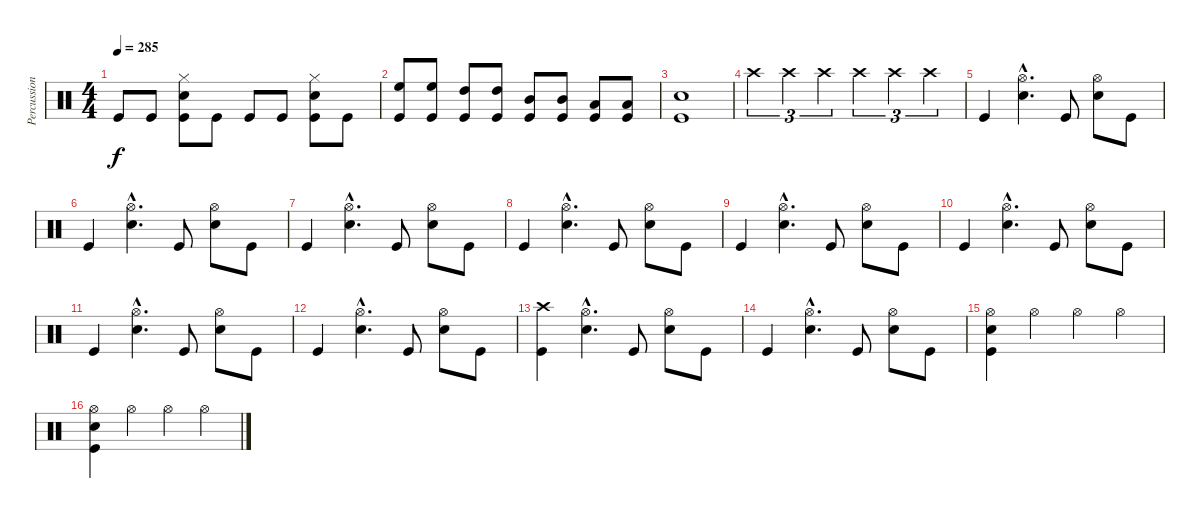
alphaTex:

\track ("Percussion" "Percussion") {instrument percussion}
\staff {score}
\articulation defaults
\ts (4 4)
\tempo 285
\clef neutral
\ks c "Kick (hit)".8{dy f} "Kick (hit)".8
("Snare (hit) 2" "Hi-Hat (closed)" "Kick (hit)").8 "Kick (hit)".8 "Kick (hit)".8 "Kick (hit)".8 ("Snare (hit) 2" "Hi-Hat (closed)" "Kick (hit)").8 "Kick (hit)".8 |
("High Floor Tom (hit)" "Kick (hit)").8 ("High Floor Tom (hit)" "Kick (hit)").8 ("High Tom (hit)" "Kick (hit)").8 ("High Tom (hit)" "Kick (hit)").8 ("Mid Tom (hit)" "Kick (hit)").8 ("Mid Tom (hit)" "Kick (hit)").8 ("Low Tom (hit)" "Kick (hit)").8 ("Low Tom (hit)" "Kick (hit)").8 |
("Snare (hit) 2" "Kick (hit)").1 |
"Crash high (hit)".4{tu (3 2)} "Crash high (hit)".4{tu (3 2)} "Crash high (hit)".4{tu (3 2)} "Crash high (hit)".4{tu (3 2)} "Crash high (hit)".4{tu (3 2)} "Crash high (hit)".4{tu (3 2)} |
"Kick (hit)".4 ("Snare (hit) 2"{hac} "Hi-Hat (open)"{hac}).4{d} "Kick (hit)".8 ("Snare (hit) 2" "Hi-Hat (open)").8 "Kick (hit)".8 |
"Kick (hit)".4 ("Snare (hit) 2"{hac} "Hi-Hat (open)"{hac}).4{d} "Kick (hit)".8 ("Snare (hit) 2" "Hi-Hat (open)").8 "Kick (hit)".8 |
"Kick (hit)".4 ("Snare (hit) 2"{hac} "Hi-Hat (open)"{hac}).4{d} "Kick (hit)".8 ("Snare (hit) 2" "Hi-Hat (open)").8 "Kick (hit)".8 |
"Kick (hit)".4 ("Snare (hit) 2"{hac} "Hi-Hat (open)"{hac}).4{d} "Kick (hit)".8 ("Snare (hit) 2" "Hi-Hat (open)").8 "Kick (hit)".8 |
"Kick (hit)".4 ("Snare (hit) 2"{hac} "Hi-Hat (open)"{hac}).4{d} "Kick (hit)".8 ("Snare (hit) 2" "Hi-Hat (open)").8 "Kick (hit)".8 |
"Kick (hit)".4 ("Snare (hit) 2"{hac} "Hi-Hat (open)"{hac}).4{d} "Kick (hit)".8 ("Snare (hit) 2" "Hi-Hat (open)").8 "Kick (hit)".8 |
"Kick (hit)".4 ("Snare (hit) 2"{hac} "Hi-Hat (open)"{hac}).4{d} "Kick (hit)".8 ("Snare (hit) 2" "Hi-Hat (open)").8 "Kick (hit)".8 |
"Kick (hit)".4 ("Snare (hit) 2"{hac} "Hi-Hat (open)"{hac}).4{d} "Kick (hit)".8 ("Snare (hit) 2" "Hi-Hat (open)").8 "Kick (hit)".8 |
("Crash high (hit)" "Kick (hit)").4 ("Snare (hit) 2"{hac} "Hi-Hat (open)"{hac}).4{d} "Kick (hit)".8 ("Snare (hit) 2" "Hi-Hat (open)").8 "Kick (hit)".8 |
"Kick (hit)".4 ("Snare (hit) 2"{hac} "Hi-Hat (open)"{hac}).4{d} "Kick (hit)".8 ("Snare (hit) 2" "Hi-Hat (open)").8 "Kick (hit)".8 |
("Snare (hit) 2" "Hi-Hat (open)" "Kick (hit)").4 "Hi-Hat (open)".4 "Hi-Hat (open)".4 "Hi-Hat (open)".4 |
("Snare (hit) 2" "Hi-Hat (open)" "Kick (hit)").4 "Hi-Hat (open)".4 "Hi-Hat (open)".4 "Hi-Hat (open)".4
